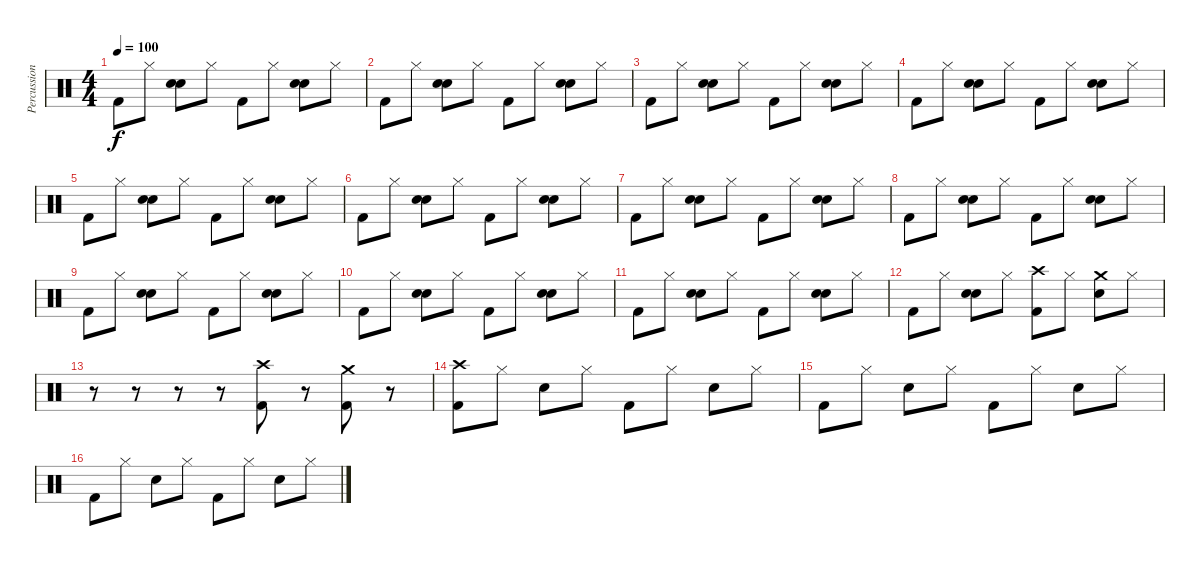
\track ("Percussions" "Percussion") {instrument percussion}
\staff {score}
\articulation defaults
\ts (4 4)
\tempo 100
\clef neutral
\ks c "Kick (hit) 2".8{dy f} "Hi-Hat (closed)".8
("Hand Clap (hit)" "Electric Snare (hit)").8 "Hi-Hat (closed)".8 "Kick (hit) 2".8 "Hi-Hat (closed)".8 ("Hand Clap (hit)" "Electric Snare (hit)").8 "Hi-Hat (closed)".8 |
"Kick (hit) 2".8 "Hi-Hat (closed)".8 ("Hand Clap (hit)" "Electric Snare (hit)").8 "Hi-Hat (closed)".8 "Kick (hit) 2".8 "Hi-Hat (closed)".8 ("Hand Clap (hit)" "Electric Snare (hit)").8 "Hi-Hat (closed)".8 |
"Kick (hit) 2".8 "Hi-Hat (closed)".8 ("Hand Clap (hit)" "Electric Snare (hit)").8 "Hi-Hat (closed)".8 "Kick (hit) 2".8 "Hi-Hat (closed)".8 ("Hand Clap (hit)" "Electric Snare (hit)").8 "Hi-Hat (closed)".8 |
"Kick (hit) 2".8 "Hi-Hat (closed)".8 ("Hand Clap (hit)" "Electric Snare (hit)").8 "Hi-Hat (closed)".8 "Kick (hit) 2".8 "Hi-Hat (closed)".8 ("Hand Clap (hit)" "Electric Snare (hit)").8 "Hi-Hat (closed)".8 |
"Kick (hit) 2".8 "Hi-Hat (closed)".8 ("Hand Clap (hit)" "Electric Snare (hit)").8 "Hi-Hat (closed)".8 "Kick (hit) 2".8 "Hi-Hat (closed)".8 ("Hand Clap (hit)" "Electric Snare (hit)").8 "Hi-Hat (closed)".8 |
"Kick (hit) 2".8 "Hi-Hat (closed)".8 ("Hand Clap (hit)" "Electric Snare (hit)").8 "Hi-Hat (closed)".8 "Kick (hit) 2".8 "Hi-Hat (closed)".8 ("Hand Clap (hit)" "Electric Snare (hit)").8 "Hi-Hat (closed)".8 |
"Kick (hit) 2".8 "Hi-Hat (closed)".8 ("Hand Clap (hit)" "Electric Snare (hit)").8 "Hi-Hat (closed)".8 "Kick (hit) 2".8 "Hi-Hat (closed)".8 ("Hand Clap (hit)" "Electric Snare (hit)").8 "Hi-Hat (closed)".8 |
"Kick (hit) 2".8 "Hi-Hat (closed)".8 ("Hand Clap (hit)" "Electric Snare (hit)").8 "Hi-Hat (closed)".8 "Kick (hit) 2".8 "Hi-Hat (closed)".8 ("Hand Clap (hit)" "Electric Snare (hit)").8 "Hi-Hat (closed)".8 |
"Kick (hit) 2".8 "Hi-Hat (closed)".8 ("Hand Clap (hit)" "Electric Snare (hit)").8 "Hi-Hat (closed)".8 "Kick (hit) 2".8 "Hi-Hat (closed)".8 ("Hand Clap (hit)" "Electric Snare (hit)").8 "Hi-Hat (closed)".8 |
"Kick (hit) 2".8 "Hi-Hat (closed)".8 ("Hand Clap (hit)" "Electric Snare (hit)").8 "Hi-Hat (closed)".8 "Kick (hit) 2".8 "Hi-Hat (closed)".8 ("Hand Clap (hit)" "Electric Snare (hit)").8 "Hi-Hat (closed)".8 |
"Kick (hit) 2".8 "Hi-Hat (closed)".8 ("Hand Clap (hit)" "Electric Snare (hit)").8 "Hi-Hat (closed)".8 "Kick (hit) 2".8 "Hi-Hat (closed)".8 ("Hand Clap (hit)" "Electric Snare (hit)").8 "Hi-Hat (closed)".8 |
"Kick (hit) 2".8 "Hi-Hat (closed)".8 ("Hand Clap (hit)" "Electric Snare (hit)").8 "Hi-Hat (closed)".8 ("Crash high (hit)" "Kick (hit) 2").8 "Hi-Hat (closed)".8 ("Crash medium (hit)" "Electric Snare (hit)").8 "Hi-Hat (closed)".8 |
r.8 r.8 r.8 r.8 ("Crash high (hit)" "Kick (hit) 2").8 r.8 ("Kick (hit) 2" "Crash medium (hit)").8 r.8 |
("Crash high (hit)" "Kick (hit) 2").8 "Hi-Hat (closed)".8 "Electric Snare (hit)".8 "Hi-Hat (closed)".8 "Kick (hit) 2".8 "Hi-Hat (closed)".8 "Electric Snare (hit)".8 "Hi-Hat (closed)".8 |
"Kick (hit) 2".8 "Hi-Hat (closed)".8 "Electric Snare (hit)".8 "Hi-Hat (closed)".8 "Kick (hit) 2".8 "Hi-Hat (closed)".8 "Electric Snare (hit)".8 "Hi-Hat (closed)".8 |
"Kick (hit) 2".8 "Hi-Hat (closed)".8 "Electric Snare (hit)".8 "Hi-Hat (closed)".8 "Kick (hit) 2".8 "Hi-Hat (closed)".8 "Electric Snare (hit)".8 "Hi-Hat (closed)".8
